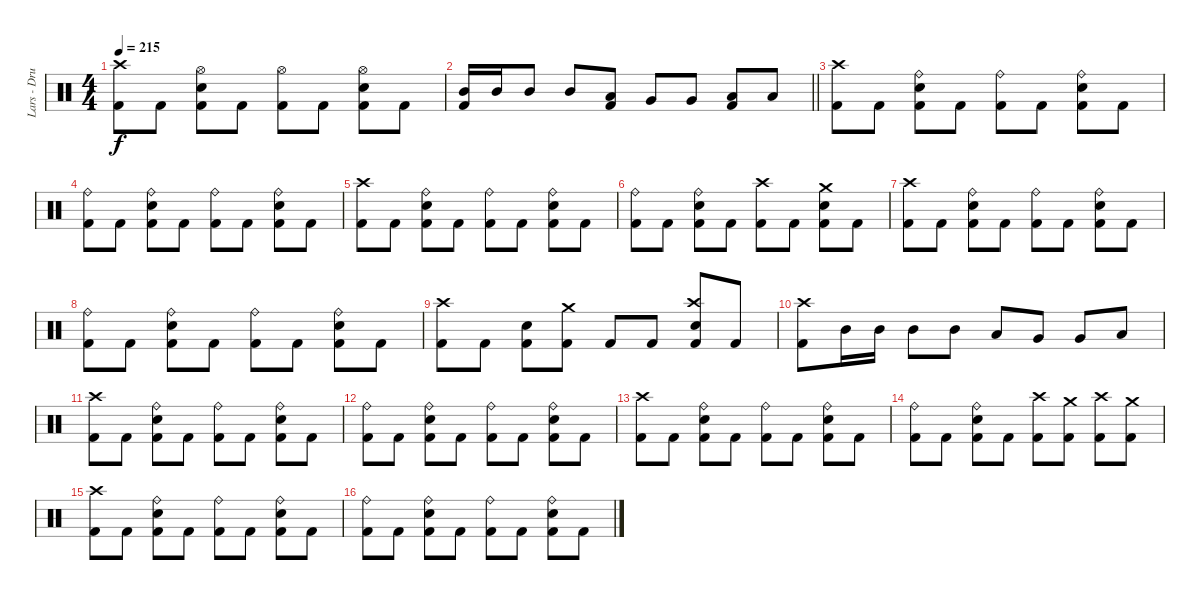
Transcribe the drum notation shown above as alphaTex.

\track ("Lars - Drums" "Lars - Dru") {instrument percussion}
\staff {score}
\articulation defaults
\ts (4 4)
\tempo 215
\clef neutral
\ks c
("Kick (hit) 2" "Crash high (hit)").8{dy f} "Kick (hit) 2".8 ("Kick (hit) 2" "Electric Snare (hit)" "Hi-Hat (open)").8 "Kick (hit) 2".8 ("Kick (hit) 2" "Hi-Hat (open)").8 "Kick (hit) 2".8 ("Kick (hit) 2" "Electric Snare (hit)" "Hi-Hat (open)").8 "Kick (hit) 2".8 |
\barLineRight lightlight
("Kick (hit) 2" "Mid Tom (hit)").16 "Mid Tom (hit)".16 "Mid Tom (hit)".8 "Mid Tom (hit)".8 ("Kick (hit) 2" "Low Tom (hit)").8 "Very Low Tom (hit)".8 "Very Low Tom (hit)".8 ("Kick (hit) 2" "Low Floor Tom (hit)").8 "Low Floor Tom (hit)".8 |
\section ("" "")
("Kick (hit) 2" "Crash high (hit)").8 "Kick (hit) 2".8 ("Kick (hit) 2" "Electric Snare (hit)" "Ride (bell)").8 "Kick (hit) 2".8 ("Kick (hit) 2" "Ride (bell)").8 "Kick (hit) 2".8 ("Kick (hit) 2" "Electric Snare (hit)" "Ride (bell)").8 "Kick (hit) 2".8 |
("Kick (hit) 2" "Ride (bell)").8 "Kick (hit) 2".8 ("Kick (hit) 2" "Electric Snare (hit)" "Ride (bell)").8 "Kick (hit) 2".8 ("Kick (hit) 2" "Ride (bell)").8 "Kick (hit) 2".8 ("Kick (hit) 2" "Electric Snare (hit)" "Ride (bell)").8 "Kick (hit) 2".8 |
("Kick (hit) 2" "Crash high (hit)").8 "Kick (hit) 2".8 ("Kick (hit) 2" "Electric Snare (hit)" "Ride (bell)").8 "Kick (hit) 2".8 ("Kick (hit) 2" "Ride (bell)").8 "Kick (hit) 2".8 ("Kick (hit) 2" "Electric Snare (hit)" "Ride (bell)").8 "Kick (hit) 2".8 |
("Kick (hit) 2" "Ride (bell)").8 "Kick (hit) 2".8 ("Kick (hit) 2" "Electric Snare (hit)" "Ride (bell)").8 "Kick (hit) 2".8 ("Kick (hit) 2" "Crash high (hit)").8 "Kick (hit) 2".8 ("Kick (hit) 2" "Electric Snare (hit)" "Crash medium (hit)").8 "Kick (hit) 2".8 |
("Kick (hit) 2" "Crash high (hit)").8 "Kick (hit) 2".8 ("Kick (hit) 2" "Electric Snare (hit)" "Ride (bell)").8 "Kick (hit) 2".8 ("Kick (hit) 2" "Ride (bell)").8 "Kick (hit) 2".8 ("Kick (hit) 2" "Electric Snare (hit)" "Ride (bell)").8 "Kick (hit) 2".8 |
("Kick (hit) 2" "Ride (bell)").8 "Kick (hit) 2".8 ("Kick (hit) 2" "Electric Snare (hit)" "Ride (bell)").8 "Kick (hit) 2".8 ("Kick (hit) 2" "Ride (bell)").8 "Kick (hit) 2".8 ("Kick (hit) 2" "Electric Snare (hit)" "Ride (bell)").8 "Kick (hit) 2".8 |
("Kick (hit) 2" "Crash high (hit)").8 "Kick (hit) 2".8 ("Kick (hit) 2" "Electric Snare (hit)").8 ("Kick (hit) 2" "Crash medium (hit)").8 "Kick (hit) 2".8 "Kick (hit) 2".8 ("Kick (hit) 2" "Electric Snare (hit)" "Crash high (hit)").8 "Kick (hit) 2".8 |
("Kick (hit) 2" "Crash high (hit)").8 "Mid Tom (hit)".16 "Mid Tom (hit)".16 "Mid Tom (hit)".8 "Mid Tom (hit)".8 "Low Tom (hit)".8 "Very Low Tom (hit)".8 "Very Low Tom (hit)".8 "Low Floor Tom (hit)".8 |
("Kick (hit) 2" "Crash high (hit)").8 "Kick (hit) 2".8 ("Kick (hit) 2" "Electric Snare (hit)" "Ride (bell)").8 "Kick (hit) 2".8 ("Kick (hit) 2" "Ride (bell)").8 "Kick (hit) 2".8 ("Kick (hit) 2" "Electric Snare (hit)" "Ride (bell)").8 "Kick (hit) 2".8 |
("Kick (hit) 2" "Ride (bell)").8 "Kick (hit) 2".8 ("Kick (hit) 2" "Electric Snare (hit)" "Ride (bell)").8 "Kick (hit) 2".8 ("Kick (hit) 2" "Ride (bell)").8 "Kick (hit) 2".8 ("Kick (hit) 2" "Electric Snare (hit)" "Ride (bell)").8 "Kick (hit) 2".8 |
("Kick (hit) 2" "Crash high (hit)").8 "Kick (hit) 2".8 ("Kick (hit) 2" "Electric Snare (hit)" "Ride (bell)").8 "Kick (hit) 2".8 ("Kick (hit) 2" "Ride (bell)").8 "Kick (hit) 2".8 ("Kick (hit) 2" "Electric Snare (hit)" "Ride (bell)").8 "Kick (hit) 2".8 |
("Kick (hit) 2" "Ride (bell)").8 "Kick (hit) 2".8 ("Kick (hit) 2" "Electric Snare (hit)" "Ride (bell)").8 "Kick (hit) 2".8 ("Kick (hit) 2" "Crash high (hit)").8 ("Kick (hit) 2" "Crash medium (hit)").8 ("Kick (hit) 2" "Crash high (hit)").8 ("Kick (hit) 2" "Crash medium (hit)").8 |
("Kick (hit) 2" "Crash high (hit)").8 "Kick (hit) 2".8 ("Kick (hit) 2" "Electric Snare (hit)" "Ride (bell)").8 "Kick (hit) 2".8 ("Kick (hit) 2" "Ride (bell)").8 "Kick (hit) 2".8 ("Kick (hit) 2" "Electric Snare (hit)" "Ride (bell)").8 "Kick (hit) 2".8 |
("Kick (hit) 2" "Ride (bell)").8 "Kick (hit) 2".8 ("Kick (hit) 2" "Electric Snare (hit)" "Ride (bell)").8 "Kick (hit) 2".8 ("Kick (hit) 2" "Ride (bell)").8 "Kick (hit) 2".8 ("Kick (hit) 2" "Electric Snare (hit)" "Ride (bell)").8 "Kick (hit) 2".8
